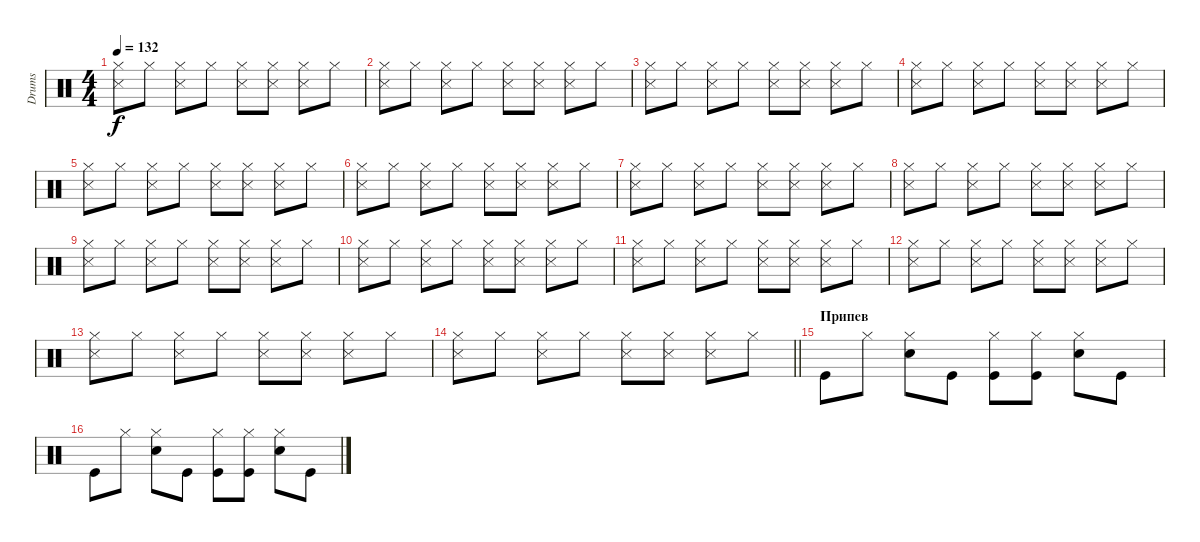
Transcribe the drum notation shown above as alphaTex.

\track ("Drums" "Drums") {instrument percussion}
\staff {score}
\articulation defaults
\ts (4 4)
\tempo 132
\clef neutral
\ks c
("Snare (side stick) 3" "Hi-Hat (closed)").8{dy f} "Hi-Hat (closed)".8 ("Snare (side stick) 3" "Hi-Hat (closed)").8 "Hi-Hat (closed)".8 ("Snare (side stick) 3" "Hi-Hat (closed)").8 ("Snare (side stick) 3" "Hi-Hat (closed)").8 ("Snare (side stick) 3" "Hi-Hat (closed)").8 "Hi-Hat (closed)".8 |
("Snare (side stick) 3" "Hi-Hat (closed)").8 "Hi-Hat (closed)".8 ("Snare (side stick) 3" "Hi-Hat (closed)").8 "Hi-Hat (closed)".8 ("Snare (side stick) 3" "Hi-Hat (closed)").8 ("Snare (side stick) 3" "Hi-Hat (closed)").8 ("Snare (side stick) 3" "Hi-Hat (closed)").8 "Hi-Hat (closed)".8 |
("Snare (side stick) 3" "Hi-Hat (closed)").8 "Hi-Hat (closed)".8 ("Snare (side stick) 3" "Hi-Hat (closed)").8 "Hi-Hat (closed)".8 ("Snare (side stick) 3" "Hi-Hat (closed)").8 ("Snare (side stick) 3" "Hi-Hat (closed)").8 ("Snare (side stick) 3" "Hi-Hat (closed)").8 "Hi-Hat (closed)".8 |
("Snare (side stick) 3" "Hi-Hat (closed)").8 "Hi-Hat (closed)".8 ("Snare (side stick) 3" "Hi-Hat (closed)").8 "Hi-Hat (closed)".8 ("Snare (side stick) 3" "Hi-Hat (closed)").8 ("Snare (side stick) 3" "Hi-Hat (closed)").8 ("Snare (side stick) 3" "Hi-Hat (closed)").8 "Hi-Hat (closed)".8 |
("Snare (side stick) 3" "Hi-Hat (closed)").8 "Hi-Hat (closed)".8 ("Snare (side stick) 3" "Hi-Hat (closed)").8 "Hi-Hat (closed)".8 ("Snare (side stick) 3" "Hi-Hat (closed)").8 ("Snare (side stick) 3" "Hi-Hat (closed)").8 ("Snare (side stick) 3" "Hi-Hat (closed)").8 "Hi-Hat (closed)".8 |
("Snare (side stick) 3" "Hi-Hat (closed)").8 "Hi-Hat (closed)".8 ("Snare (side stick) 3" "Hi-Hat (closed)").8 "Hi-Hat (closed)".8 ("Snare (side stick) 3" "Hi-Hat (closed)").8 ("Snare (side stick) 3" "Hi-Hat (closed)").8 ("Snare (side stick) 3" "Hi-Hat (closed)").8 "Hi-Hat (closed)".8 |
("Snare (side stick) 3" "Hi-Hat (closed)").8 "Hi-Hat (closed)".8 ("Snare (side stick) 3" "Hi-Hat (closed)").8 "Hi-Hat (closed)".8 ("Snare (side stick) 3" "Hi-Hat (closed)").8 ("Snare (side stick) 3" "Hi-Hat (closed)").8 ("Snare (side stick) 3" "Hi-Hat (closed)").8 "Hi-Hat (closed)".8 |
("Snare (side stick) 3" "Hi-Hat (closed)").8 "Hi-Hat (closed)".8 ("Snare (side stick) 3" "Hi-Hat (closed)").8 "Hi-Hat (closed)".8 ("Snare (side stick) 3" "Hi-Hat (closed)").8 ("Snare (side stick) 3" "Hi-Hat (closed)").8 ("Snare (side stick) 3" "Hi-Hat (closed)").8 "Hi-Hat (closed)".8 |
("Snare (side stick) 3" "Hi-Hat (closed)").8 "Hi-Hat (closed)".8 ("Snare (side stick) 3" "Hi-Hat (closed)").8 "Hi-Hat (closed)".8 ("Snare (side stick) 3" "Hi-Hat (closed)").8 ("Snare (side stick) 3" "Hi-Hat (closed)").8 ("Snare (side stick) 3" "Hi-Hat (closed)").8 "Hi-Hat (closed)".8 |
("Snare (side stick) 3" "Hi-Hat (closed)").8 "Hi-Hat (closed)".8 ("Snare (side stick) 3" "Hi-Hat (closed)").8 "Hi-Hat (closed)".8 ("Snare (side stick) 3" "Hi-Hat (closed)").8 ("Snare (side stick) 3" "Hi-Hat (closed)").8 ("Snare (side stick) 3" "Hi-Hat (closed)").8 "Hi-Hat (closed)".8 |
("Snare (side stick) 3" "Hi-Hat (closed)").8 "Hi-Hat (closed)".8 ("Snare (side stick) 3" "Hi-Hat (closed)").8 "Hi-Hat (closed)".8 ("Snare (side stick) 3" "Hi-Hat (closed)").8 ("Snare (side stick) 3" "Hi-Hat (closed)").8 ("Snare (side stick) 3" "Hi-Hat (closed)").8 "Hi-Hat (closed)".8 |
("Snare (side stick) 3" "Hi-Hat (closed)").8 "Hi-Hat (closed)".8 ("Snare (side stick) 3" "Hi-Hat (closed)").8 "Hi-Hat (closed)".8 ("Snare (side stick) 3" "Hi-Hat (closed)").8 ("Snare (side stick) 3" "Hi-Hat (closed)").8 ("Snare (side stick) 3" "Hi-Hat (closed)").8 "Hi-Hat (closed)".8 |
("Snare (side stick) 3" "Hi-Hat (closed)").8 "Hi-Hat (closed)".8 ("Snare (side stick) 3" "Hi-Hat (closed)").8 "Hi-Hat (closed)".8 ("Snare (side stick) 3" "Hi-Hat (closed)").8 ("Snare (side stick) 3" "Hi-Hat (closed)").8 ("Snare (side stick) 3" "Hi-Hat (closed)").8 "Hi-Hat (closed)".8 |
\barLineRight lightlight
("Snare (side stick) 3" "Hi-Hat (closed)").8 "Hi-Hat (closed)".8 ("Snare (side stick) 3" "Hi-Hat (closed)").8 "Hi-Hat (closed)".8 ("Snare (side stick) 3" "Hi-Hat (closed)").8 ("Snare (side stick) 3" "Hi-Hat (closed)").8 ("Snare (side stick) 3" "Hi-Hat (closed)").8 "Hi-Hat (closed)".8 |
\section ("" "Припев")
"Kick (hit)".8 "Hi-Hat (closed)".8 ("Hi-Hat (closed)" "Snare (hit) 2").8 "Kick (hit)".8 ("Hi-Hat (closed)" "Kick (hit)").8 ("Hi-Hat (closed)" "Kick (hit)").8 ("Hi-Hat (closed)" "Snare (hit) 2").8 "Kick (hit)".8 |
"Kick (hit)".8 "Hi-Hat (closed)".8 ("Hi-Hat (closed)" "Snare (hit) 2").8 "Kick (hit)".8 ("Hi-Hat (closed)" "Kick (hit)").8 ("Hi-Hat (closed)" "Kick (hit)").8 ("Hi-Hat (closed)" "Snare (hit) 2").8 "Kick (hit)".8
